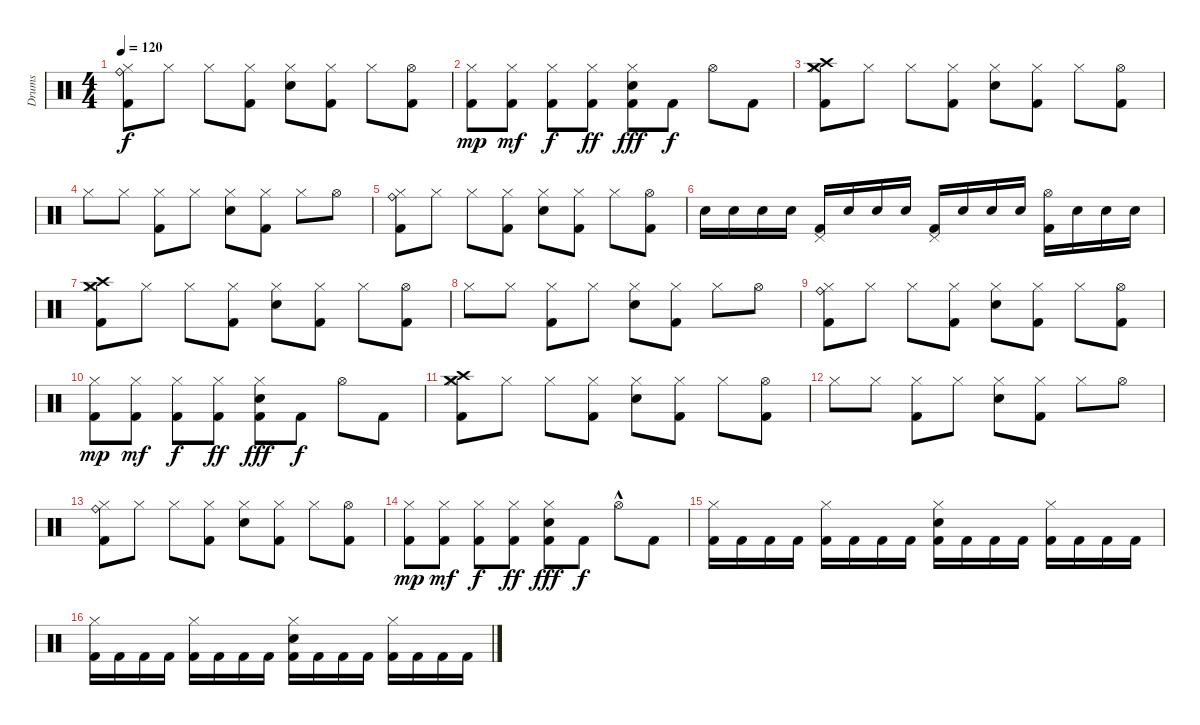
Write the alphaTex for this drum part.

\track ("Drums" "Drums") {instrument percussion}
\staff {score}
\articulation defaults
\ts (4 4)
\tempo 120
\clef neutral
\ks c
("Ride (bell)" "Hi-Hat (closed)" "Kick (hit) 2").8{dy f} "Hi-Hat (closed)".8 "Hi-Hat (closed)".8 ("Hi-Hat (closed)" "Kick (hit) 2").8 ("Hi-Hat (closed)" "Snare (hit) 2").8 ("Hi-Hat (closed)" "Kick (hit) 2").8 "Hi-Hat (closed)".8 ("Hi-Hat (open)" "Kick (hit) 2").8 |
("Hi-Hat (closed)" "Kick (hit) 2").8{dy mp} ("Hi-Hat (closed)" "Kick (hit) 2").8{dy mf} ("Hi-Hat (closed)" "Kick (hit) 2").8{dy f} ("Hi-Hat (closed)" "Kick (hit) 2").8{dy ff} ("Hi-Hat (closed)" "Kick (hit) 2" "Snare (hit) 2").8{dy fff} "Kick (hit) 2".8{dy f} "Hi-Hat (open)".8 "Kick (hit) 2".8 |
("Crash medium (hit)" "Crash high (hit)" "Hi-Hat (closed)" "Kick (hit) 2").8 "Hi-Hat (closed)".8 "Hi-Hat (closed)".8 ("Hi-Hat (closed)" "Kick (hit) 2").8 ("Hi-Hat (closed)" "Snare (hit) 2").8 ("Hi-Hat (closed)" "Kick (hit) 2").8 "Hi-Hat (closed)".8 ("Hi-Hat (open)" "Kick (hit) 2").8 |
"Hi-Hat (closed)".8 "Hi-Hat (closed)".8 ("Hi-Hat (closed)" "Kick (hit) 2").8 "Hi-Hat (closed)".8 ("Hi-Hat (closed)" "Snare (hit) 2").8 ("Hi-Hat (closed)" "Kick (hit) 2").8 "Hi-Hat (closed)".8 "Hi-Hat (open)".8 |
("Ride (bell)" "Hi-Hat (closed)" "Kick (hit) 2").8 "Hi-Hat (closed)".8 "Hi-Hat (closed)".8 ("Hi-Hat (closed)" "Kick (hit) 2").8 ("Hi-Hat (closed)" "Snare (hit) 2").8 ("Hi-Hat (closed)" "Kick (hit) 2").8 "Hi-Hat (closed)".8 ("Hi-Hat (open)" "Kick (hit) 2").8 |
"Snare (hit) 2".16 "Snare (hit) 2".16 "Snare (hit) 2".16 "Snare (hit) 2".16 ("Pedal Hi-Hat (hit)" "Kick (hit) 2").16 "Snare (hit) 2".16 "Snare (hit) 2".16 "Snare (hit) 2".16 ("Pedal Hi-Hat (hit)" "Kick (hit) 2").16 "Snare (hit) 2".16 "Snare (hit) 2".16 "Snare (hit) 2".16 ("Hi-Hat (open)" "Kick (hit) 2").16 "Snare (hit) 2".16 "Snare (hit) 2".16 "Snare (hit) 2".16 |
("Crash medium (hit)" "Crash high (hit)" "Hi-Hat (closed)" "Kick (hit) 2").8 "Hi-Hat (closed)".8 "Hi-Hat (closed)".8 ("Hi-Hat (closed)" "Kick (hit) 2").8 ("Hi-Hat (closed)" "Snare (hit) 2").8 ("Hi-Hat (closed)" "Kick (hit) 2").8 "Hi-Hat (closed)".8 ("Hi-Hat (open)" "Kick (hit) 2").8 |
"Hi-Hat (closed)".8 "Hi-Hat (closed)".8 ("Hi-Hat (closed)" "Kick (hit) 2").8 "Hi-Hat (closed)".8 ("Hi-Hat (closed)" "Snare (hit) 2").8 ("Hi-Hat (closed)" "Kick (hit) 2").8 "Hi-Hat (closed)".8 "Hi-Hat (open)".8 |
("Ride (bell)" "Hi-Hat (closed)" "Kick (hit) 2").8 "Hi-Hat (closed)".8 "Hi-Hat (closed)".8 ("Hi-Hat (closed)" "Kick (hit) 2").8 ("Hi-Hat (closed)" "Snare (hit) 2").8 ("Hi-Hat (closed)" "Kick (hit) 2").8 "Hi-Hat (closed)".8 ("Hi-Hat (open)" "Kick (hit) 2").8 |
("Hi-Hat (closed)" "Kick (hit) 2").8{dy mp} ("Hi-Hat (closed)" "Kick (hit) 2").8{dy mf} ("Hi-Hat (closed)" "Kick (hit) 2").8{dy f} ("Hi-Hat (closed)" "Kick (hit) 2").8{dy ff} ("Hi-Hat (closed)" "Kick (hit) 2" "Snare (hit) 2").8{dy fff} "Kick (hit) 2".8{dy f} "Hi-Hat (open)".8 "Kick (hit) 2".8 |
("Crash medium (hit)" "Crash high (hit)" "Hi-Hat (closed)" "Kick (hit) 2").8 "Hi-Hat (closed)".8 "Hi-Hat (closed)".8 ("Hi-Hat (closed)" "Kick (hit) 2").8 ("Hi-Hat (closed)" "Snare (hit) 2").8 ("Hi-Hat (closed)" "Kick (hit) 2").8 "Hi-Hat (closed)".8 ("Hi-Hat (open)" "Kick (hit) 2").8 |
"Hi-Hat (closed)".8 "Hi-Hat (closed)".8 ("Hi-Hat (closed)" "Kick (hit) 2").8 "Hi-Hat (closed)".8 ("Hi-Hat (closed)" "Snare (hit) 2").8 ("Hi-Hat (closed)" "Kick (hit) 2").8 "Hi-Hat (closed)".8 "Hi-Hat (open)".8 |
("Ride (bell)" "Hi-Hat (closed)" "Kick (hit) 2").8 "Hi-Hat (closed)".8 "Hi-Hat (closed)".8 ("Hi-Hat (closed)" "Kick (hit) 2").8 ("Hi-Hat (closed)" "Snare (hit) 2").8 ("Hi-Hat (closed)" "Kick (hit) 2").8 "Hi-Hat (closed)".8 ("Hi-Hat (open)" "Kick (hit) 2").8 |
("Hi-Hat (closed)" "Kick (hit) 2").8{dy mp} ("Hi-Hat (closed)" "Kick (hit) 2").8{dy mf} ("Hi-Hat (closed)" "Kick (hit) 2").8{dy f} ("Hi-Hat (closed)" "Kick (hit) 2").8{dy ff} ("Hi-Hat (closed)" "Kick (hit) 2" "Snare (hit) 2").8{dy fff} "Kick (hit) 2".8{dy f} "Hi-Hat (open)"{hac}.8 "Kick (hit) 2".8 |
("Hi-Hat (closed)" "Kick (hit) 2").16 "Kick (hit) 2".16 "Kick (hit) 2".16 "Kick (hit) 2".16 ("Hi-Hat (closed)" "Kick (hit) 2").16 "Kick (hit) 2".16 "Kick (hit) 2".16 "Kick (hit) 2".16 ("Hi-Hat (closed)" "Kick (hit) 2" "Snare (hit) 2").16 "Kick (hit) 2".16 "Kick (hit) 2".16 "Kick (hit) 2".16 ("Hi-Hat (closed)" "Kick (hit) 2").16 "Kick (hit) 2".16 "Kick (hit) 2".16 "Kick (hit) 2".16 |
("Hi-Hat (closed)" "Kick (hit) 2").16 "Kick (hit) 2".16 "Kick (hit) 2".16 "Kick (hit) 2".16 ("Hi-Hat (closed)" "Kick (hit) 2").16 "Kick (hit) 2".16 "Kick (hit) 2".16 "Kick (hit) 2".16 ("Hi-Hat (closed)" "Kick (hit) 2" "Snare (hit) 2").16 "Kick (hit) 2".16 "Kick (hit) 2".16 "Kick (hit) 2".16 ("Hi-Hat (closed)" "Kick (hit) 2").16 "Kick (hit) 2".16 "Kick (hit) 2".16 "Kick (hit) 2".16
